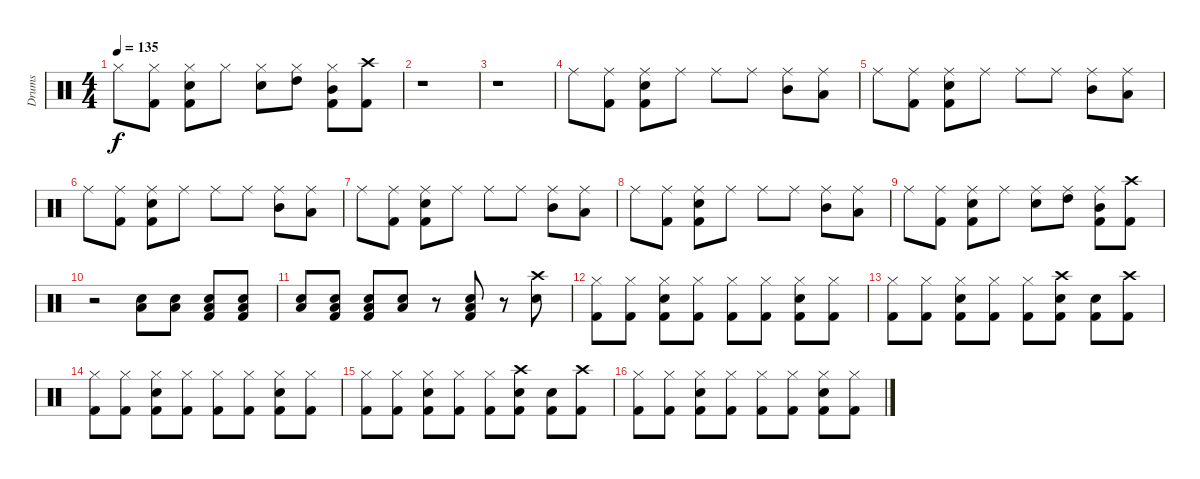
\track ("Drums" "Drums") {instrument percussion}
\staff {score}
\articulation defaults
\ts (4 4)
\tempo 135
\clef neutral
\ks c "Hi-Hat (closed)".8{dy f}
("Kick (hit) 2" "Hi-Hat (closed)").8 ("Kick (hit) 2" "Snare (hit) 2" "Hi-Hat (closed)").8 "Hi-Hat (closed)".8 ("Hi-Hat (closed)" "Snare (hit) 2").8 ("Hi-Hat (closed)" "High Tom (hit)").8 ("Kick (hit) 2" "Hi-Hat (closed)" "Mid Tom (hit)").8 ("Kick (hit) 2" "Crash high (hit)").8 |
r.1 |
r.1 |
"Ride (middle)".8 ("Kick (hit) 2" "Ride (middle)").8 ("Kick (hit) 2" "Snare (hit) 2" "Ride (middle)").8 "Ride (middle)".8 "Ride (middle)".8 "Ride (middle)".8 ("Mid Tom (hit)" "Ride (middle)").8 ("Low Tom (hit)" "Ride (middle)").8 |
"Ride (middle)".8 ("Kick (hit) 2" "Ride (middle)").8 ("Kick (hit) 2" "Snare (hit) 2" "Ride (middle)").8 "Ride (middle)".8 "Ride (middle)".8 "Ride (middle)".8 ("Mid Tom (hit)" "Ride (middle)").8 ("Low Tom (hit)" "Ride (middle)").8 |
"Ride (middle)".8 ("Kick (hit) 2" "Ride (middle)").8 ("Kick (hit) 2" "Snare (hit) 2" "Ride (middle)").8 "Ride (middle)".8 "Ride (middle)".8 "Ride (middle)".8 ("Mid Tom (hit)" "Ride (middle)").8 ("Low Tom (hit)" "Ride (middle)").8 |
"Ride (middle)".8 ("Kick (hit) 2" "Ride (middle)").8 ("Kick (hit) 2" "Snare (hit) 2" "Ride (middle)").8 "Ride (middle)".8 "Ride (middle)".8 "Ride (middle)".8 ("Mid Tom (hit)" "Ride (middle)").8 ("Low Tom (hit)" "Ride (middle)").8 |
"Ride (middle)".8 ("Kick (hit) 2" "Ride (middle)").8 ("Kick (hit) 2" "Snare (hit) 2" "Ride (middle)").8 "Ride (middle)".8 "Ride (middle)".8 "Ride (middle)".8 ("Mid Tom (hit)" "Ride (middle)").8 ("Low Tom (hit)" "Ride (middle)").8 |
"Ride (middle)".8 ("Kick (hit) 2" "Ride (middle)").8 ("Kick (hit) 2" "Snare (hit) 2" "Ride (middle)").8 "Ride (middle)".8 ("Snare (hit) 2" "Ride (middle)").8 ("High Tom (hit)" "Ride (middle)").8 ("Kick (hit) 2" "Mid Tom (hit)" "Ride (middle)").8 ("Kick (hit) 2" "Crash high (hit)").8 |
r.2 ("Snare (hit) 2" "Low Tom (hit)").8 ("Snare (hit) 2" "Low Tom (hit)").8 ("Snare (hit) 2" "Low Tom (hit)" "Kick (hit) 2").8 ("Snare (hit) 2" "Low Tom (hit)" "Kick (hit) 2").8 |
("Snare (hit) 2" "Low Tom (hit)").8 ("Snare (hit) 2" "Low Tom (hit)" "Kick (hit) 2").8 ("Snare (hit) 2" "Low Tom (hit)" "Kick (hit) 2").8 ("Snare (hit) 2" "Low Tom (hit)").8 r.8 ("Snare (hit) 2" "Low Tom (hit)" "Kick (hit) 2").8 r.8 ("Crash high (hit)" "Snare (hit) 2").8 |
("Kick (hit) 2" "Hi-Hat (closed)").8 ("Kick (hit) 2" "Hi-Hat (closed)").8 ("Snare (hit) 2" "Kick (hit) 2" "Hi-Hat (closed)").8 ("Kick (hit) 2" "Hi-Hat (closed)").8 ("Kick (hit) 2" "Hi-Hat (closed)").8 ("Kick (hit) 2" "Hi-Hat (closed)").8 ("Snare (hit) 2" "Kick (hit) 2" "Hi-Hat (closed)").8 ("Kick (hit) 2" "Hi-Hat (closed)").8 |
("Kick (hit) 2" "Hi-Hat (closed)").8 ("Kick (hit) 2" "Hi-Hat (closed)").8 ("Snare (hit) 2" "Kick (hit) 2" "Hi-Hat (closed)").8 ("Kick (hit) 2" "Hi-Hat (closed)").8 ("Kick (hit) 2" "Hi-Hat (closed)").8 ("Kick (hit) 2" "Crash high (hit)" "Snare (hit) 2").8 ("Snare (hit) 2" "Kick (hit) 2").8 ("Kick (hit) 2" "Crash high (hit)").8 |
("Kick (hit) 2" "Hi-Hat (closed)").8 ("Kick (hit) 2" "Hi-Hat (closed)").8 ("Snare (hit) 2" "Kick (hit) 2" "Hi-Hat (closed)").8 ("Kick (hit) 2" "Hi-Hat (closed)").8 ("Kick (hit) 2" "Hi-Hat (closed)").8 ("Kick (hit) 2" "Hi-Hat (closed)").8 ("Snare (hit) 2" "Kick (hit) 2" "Hi-Hat (closed)").8 ("Kick (hit) 2" "Hi-Hat (closed)").8 |
("Kick (hit) 2" "Hi-Hat (closed)").8 ("Kick (hit) 2" "Hi-Hat (closed)").8 ("Snare (hit) 2" "Kick (hit) 2" "Hi-Hat (closed)").8 ("Kick (hit) 2" "Hi-Hat (closed)").8 ("Kick (hit) 2" "Hi-Hat (closed)").8 ("Kick (hit) 2" "Crash high (hit)" "Snare (hit) 2").8 ("Snare (hit) 2" "Kick (hit) 2").8 ("Kick (hit) 2" "Crash high (hit)").8 |
("Kick (hit) 2" "Hi-Hat (closed)").8 ("Kick (hit) 2" "Hi-Hat (closed)").8 ("Snare (hit) 2" "Kick (hit) 2" "Hi-Hat (closed)").8 ("Kick (hit) 2" "Hi-Hat (closed)").8 ("Kick (hit) 2" "Hi-Hat (closed)").8 ("Kick (hit) 2" "Hi-Hat (closed)").8 ("Snare (hit) 2" "Kick (hit) 2" "Hi-Hat (closed)").8 ("Kick (hit) 2" "Hi-Hat (closed)").8
